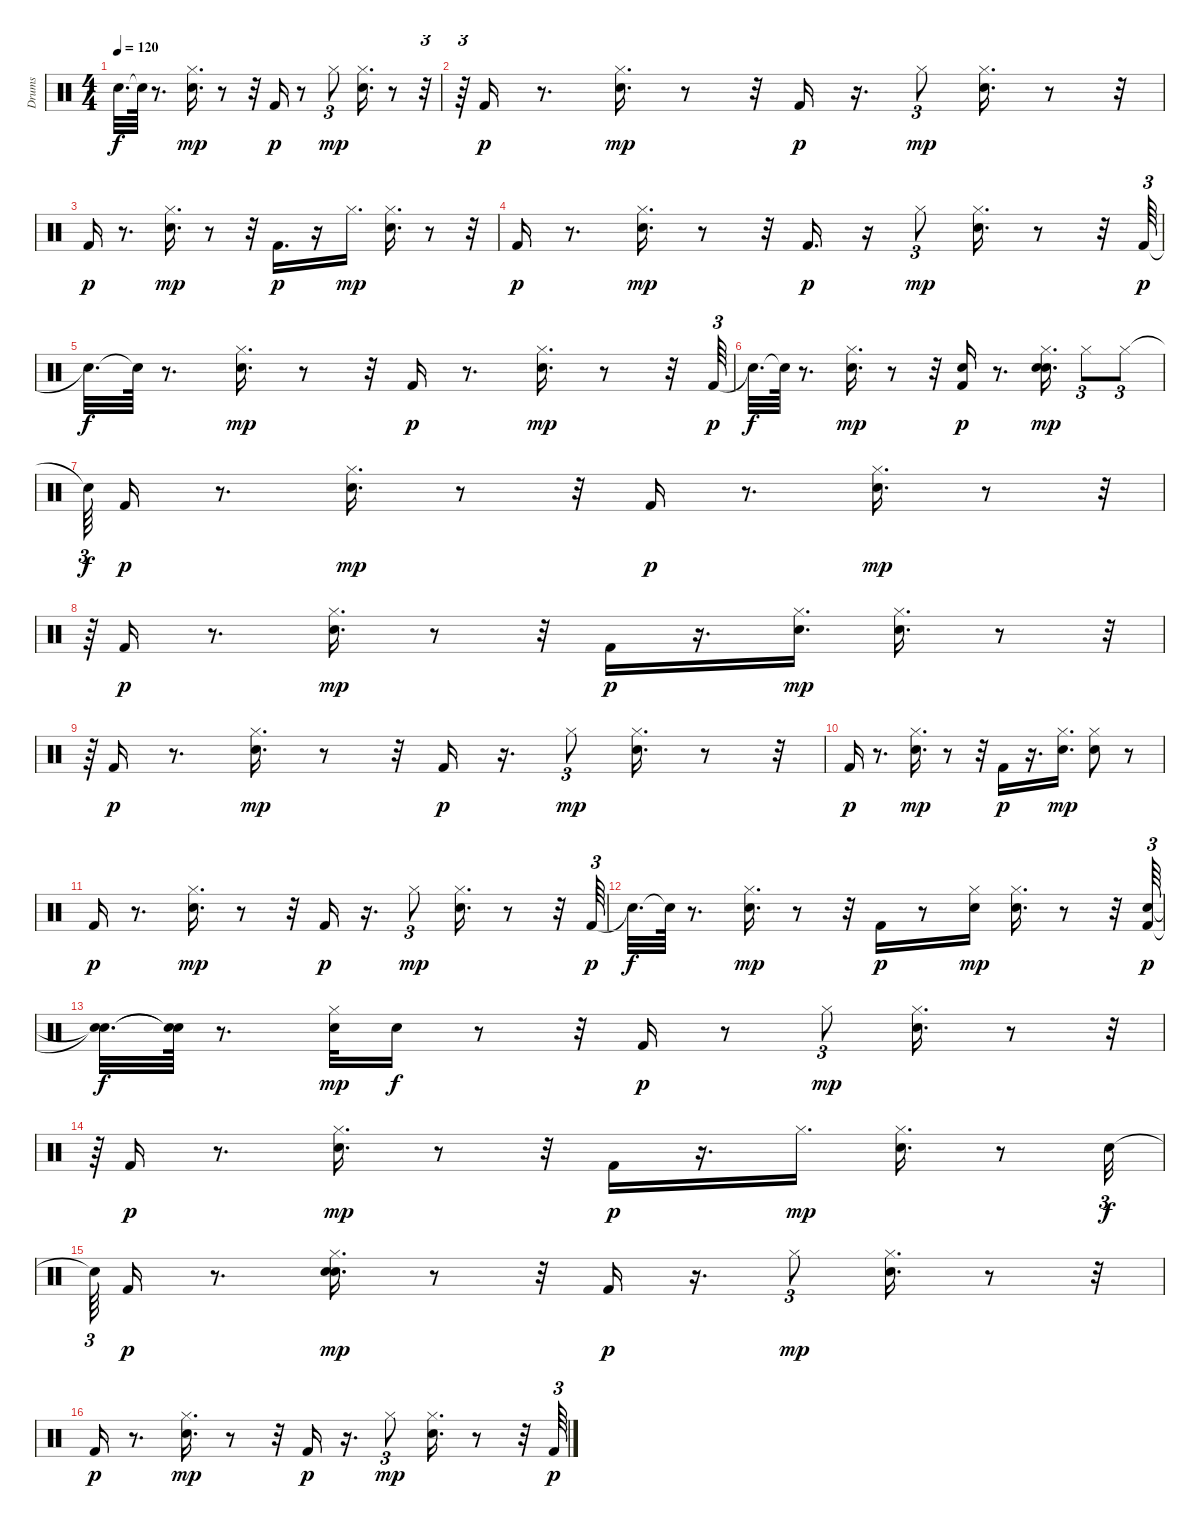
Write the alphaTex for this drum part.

\track ("Drums" "Drums") {instrument percussion}
\staff {score}
\articulation defaults
\ts (4 4)
\tempo 120
\clef neutral
\ks c "Snare (hit)"{t}.32{d dy f} "Snare (hit)"{t}.64
r.8{d} ("Hi-Hat (closed)" "Snare (hit) 2").16{d dy mp} r.8 r.32 "Kick (hit) 2".16{dy p} r.8 "Hi-Hat (closed)".8{tu (3 2) dy mp} ("Hi-Hat (closed)" "Snare (hit) 2").16{d} r.8 r.32{tu (3 2)} |
r.64{tu (3 2)} "Kick (hit) 2".16{dy p} r.8{d} ("Hi-Hat (closed)" "Snare (hit) 2").16{d dy mp} r.8 r.32 "Kick (hit) 2".16{dy p} r.16{d} "Hi-Hat (closed)".8{tu (3 2) dy mp} ("Hi-Hat (closed)" "Snare (hit) 2").16{d} r.8 r.32 |
"Kick (hit) 2".16{dy p} r.8{d} ("Hi-Hat (closed)" "Snare (hit) 2").16{d dy mp} r.8 r.32 "Kick (hit) 2".16{d dy p} r.16 "Hi-Hat (closed)".16{d dy mp} ("Snare (hit) 2" "Hi-Hat (closed)").16{d} r.8 r.32 |
"Kick (hit) 2".16{dy p} r.8{d} ("Hi-Hat (closed)" "Snare (hit) 2").16{d dy mp} r.8 r.32 "Kick (hit) 2".16{d dy p} r.16 "Hi-Hat (closed)".8{tu (3 2) dy mp} ("Snare (hit) 2" "Hi-Hat (closed)").16{d} r.8 r.32 "Kick (hit) 2".64{tu (3 2) dy p} |
"Snare (hit)"{t}.32{d dy f} "Snare (hit)"{t}.64 r.8{d} ("Hi-Hat (closed)" "Snare (hit) 2").16{d dy mp} r.8 r.32 "Kick (hit) 2".16{dy p} r.8{d} ("Snare (hit) 2" "Hi-Hat (closed)").16{d dy mp} r.8 r.32 "Kick (hit) 2".64{tu (3 2) dy p} |
"Snare (hit)"{t}.32{d dy f} "Snare (hit)"{t}.64 r.8{d} ("Hi-Hat (closed)" "Snare (hit) 2").16{d dy mp} r.8 r.32 ("Hand Clap (hit)" "Kick (hit) 2").16{dy p} r.8{d} ("Hi-Hat (closed)" "Hand Clap (hit)" "Snare (hit) 2").16{d dy mp} "Hi-Hat (closed)".8{tu (3 2)} "Hi-Hat (closed)".8{tu (3 2)} |
"Snare (hit)"{t}.64{tu (3 2) dy f} "Kick (hit) 2".16{dy p} r.8{d} ("Hi-Hat (closed)" "Snare (hit) 2").16{d dy mp} r.8 r.32 "Kick (hit) 2".16{dy p} r.8{d} ("Snare (hit) 2" "Hi-Hat (closed)").16{d dy mp} r.8 r.32{tu (3 2)} |
r.64{tu (3 2)} "Kick (hit) 2".16{dy p} r.8{d} ("Snare (hit) 2" "Hi-Hat (closed)").16{d dy mp} r.8 r.32 "Kick (hit) 2".16{dy p} r.16{d} ("Hi-Hat (closed)" "Snare (hit) 2").16{d dy mp} ("Snare (hit) 2" "Hi-Hat (closed)").16{d} r.8 r.32{tu (3 2)} |
r.64{tu (3 2)} "Kick (hit) 2".16{dy p} r.8{d} ("Hi-Hat (closed)" "Snare (hit) 2").16{d dy mp} r.8 r.32 "Kick (hit) 2".16{dy p} r.16{d} "Hi-Hat (closed)".8{tu (3 2) dy mp} ("Hi-Hat (closed)" "Snare (hit) 2").16{d} r.8 r.32 |
"Kick (hit) 2".16{dy p} r.8{d} ("Hi-Hat (closed)" "Snare (hit) 2").16{d dy mp} r.8 r.32 "Kick (hit) 2".16{dy p} r.16{d} ("Hi-Hat (closed)" "Snare (hit) 2").16{d dy mp} ("Snare (hit) 2" "Hi-Hat (closed)").8 r.8 |
"Kick (hit) 2".16{dy p} r.8{d} ("Hi-Hat (closed)" "Snare (hit) 2").16{d dy mp} r.8 r.32 "Kick (hit) 2".16{dy p} r.16{d} "Hi-Hat (closed)".8{tu (3 2) dy mp} ("Hi-Hat (closed)" "Snare (hit) 2").16{d} r.8 r.32 "Kick (hit) 2".64{tu (3 2) dy p} |
"Snare (hit)"{t}.32{d dy f} "Snare (hit)"{t}.64 r.8{d} ("Hi-Hat (closed)" "Snare (hit) 2").16{d dy mp} r.8 r.32 "Kick (hit) 2".16{dy p} r.8 ("Hi-Hat (closed)" "Snare (hit) 2").16{dy mp} ("Hi-Hat (closed)" "Snare (hit) 2").16{d} r.8 r.32 ("Kick (hit) 2" "Hand Clap (hit)").64{tu (3 2) dy p} |
("Snare (hit)"{t} "Snare (hit)"{t}).32{d dy f} ("Snare (hit)"{t} "Snare (hit)"{t}).64 r.8{d} ("Hi-Hat (closed)" "Snare (hit) 2").32{dy mp} "Hand Clap (hit)".16{dy f} r.8 r.32 "Kick (hit) 2".16{dy p} r.8 "Hi-Hat (closed)".8{tu (3 2) dy mp} ("Hi-Hat (closed)" "Snare (hit) 2").16{d} r.8 r.32{tu (3 2)} |
r.64{tu (3 2)} "Kick (hit) 2".16{dy p} r.8{d} ("Hi-Hat (closed)" "Snare (hit) 2").16{d dy mp} r.8 r.32 "Kick (hit) 2".16{dy p} r.16{d} "Hi-Hat (closed)".16{d dy mp} ("Snare (hit) 2" "Hi-Hat (closed)").16{d} r.8 "Hand Clap (hit)".32{tu (3 2) dy f} |
"Snare (hit)"{t}.64{tu (3 2)} "Kick (hit) 2".16{dy p} r.8{d} ("Hi-Hat (closed)" "Snare (hit) 2" "Hand Clap (hit)").16{d dy mp} r.8 r.32 "Kick (hit) 2".16{dy p} r.16{d} "Hi-Hat (closed)".8{tu (3 2) dy mp} ("Hi-Hat (closed)" "Snare (hit) 2").16{d} r.8 r.32 |
"Kick (hit) 2".16{dy p} r.8{d} ("Hi-Hat (closed)" "Snare (hit) 2").16{d dy mp} r.8 r.32 "Kick (hit) 2".16{dy p} r.16{d} "Hi-Hat (closed)".8{tu (3 2) dy mp} ("Snare (hit) 2" "Hi-Hat (closed)").16{d} r.8 r.32 "Kick (hit) 2".64{tu (3 2) dy p}
